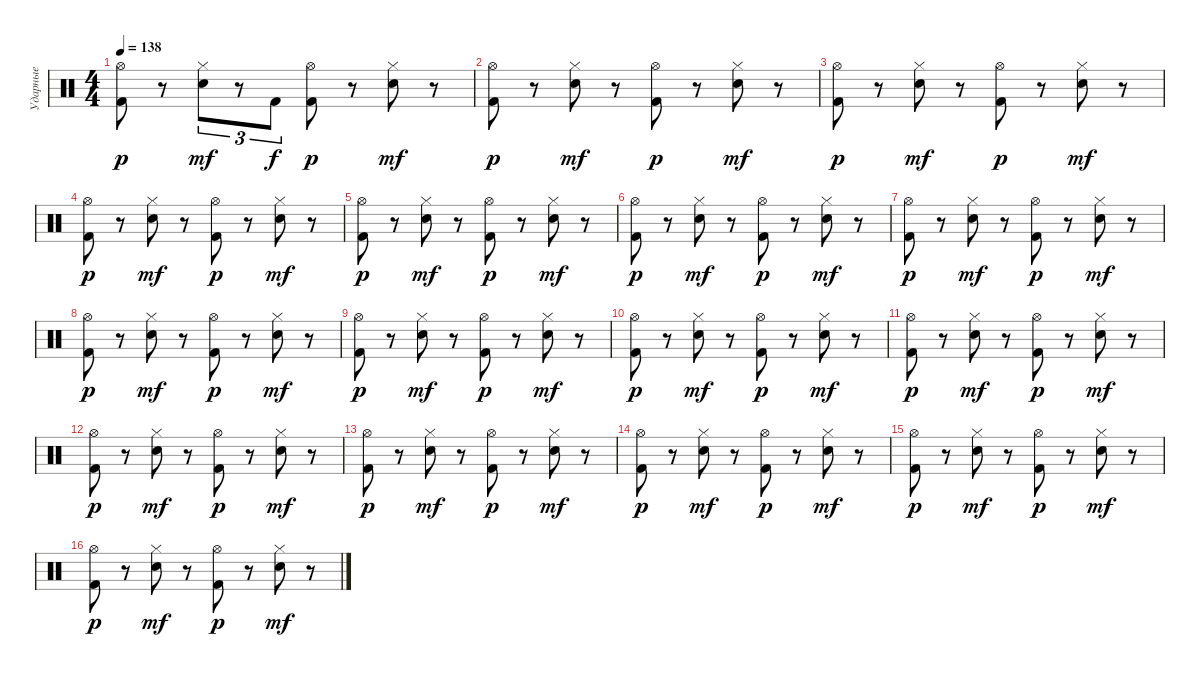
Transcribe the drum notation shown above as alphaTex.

\track ("Ударные" "Ударные") {instrument percussion}
\staff {score}
\articulation defaults
\ts (4 4)
\tempo 138
\clef neutral
\ks c
("Hi-Hat (open)" "Kick (hit) 2").8{dy p} r.8 ("Hi-Hat (closed)" "Snare (hit) 2").8{tu (3 2) dy mf} r.8{tu (3 2)} "Kick (hit) 2".8{tu (3 2) dy f} ("Hi-Hat (open)" "Kick (hit) 2").8{dy p} r.8 ("Hi-Hat (closed)" "Snare (hit) 2").8{dy mf} r.8 |
("Hi-Hat (open)" "Kick (hit) 2").8{dy p} r.8 ("Hi-Hat (closed)" "Snare (hit) 2").8{dy mf} r.8 ("Hi-Hat (open)" "Kick (hit) 2").8{dy p} r.8 ("Hi-Hat (closed)" "Snare (hit) 2").8{dy mf} r.8 |
("Hi-Hat (open)" "Kick (hit) 2").8{dy p} r.8 ("Hi-Hat (closed)" "Snare (hit) 2").8{dy mf} r.8 ("Hi-Hat (open)" "Kick (hit) 2").8{dy p} r.8 ("Hi-Hat (closed)" "Snare (hit) 2").8{dy mf} r.8 |
("Hi-Hat (open)" "Kick (hit) 2").8{dy p} r.8 ("Hi-Hat (closed)" "Snare (hit) 2").8{dy mf} r.8 ("Hi-Hat (open)" "Kick (hit) 2").8{dy p} r.8 ("Hi-Hat (closed)" "Snare (hit) 2").8{dy mf} r.8 |
("Hi-Hat (open)" "Kick (hit) 2").8{dy p} r.8 ("Hi-Hat (closed)" "Snare (hit) 2").8{dy mf} r.8 ("Hi-Hat (open)" "Kick (hit) 2").8{dy p} r.8 ("Hi-Hat (closed)" "Snare (hit) 2").8{dy mf} r.8 |
("Hi-Hat (open)" "Kick (hit) 2").8{dy p} r.8 ("Hi-Hat (closed)" "Snare (hit) 2").8{dy mf} r.8 ("Hi-Hat (open)" "Kick (hit) 2").8{dy p} r.8 ("Hi-Hat (closed)" "Snare (hit) 2").8{dy mf} r.8 |
("Hi-Hat (open)" "Kick (hit) 2").8{dy p} r.8 ("Hi-Hat (closed)" "Snare (hit) 2").8{dy mf} r.8 ("Hi-Hat (open)" "Kick (hit) 2").8{dy p} r.8 ("Hi-Hat (closed)" "Snare (hit) 2").8{dy mf} r.8 |
("Hi-Hat (open)" "Kick (hit) 2").8{dy p} r.8 ("Hi-Hat (closed)" "Snare (hit) 2").8{dy mf} r.8 ("Hi-Hat (open)" "Kick (hit) 2").8{dy p} r.8 ("Hi-Hat (closed)" "Snare (hit) 2").8{dy mf} r.8 |
("Hi-Hat (open)" "Kick (hit) 2").8{dy p} r.8 ("Hi-Hat (closed)" "Snare (hit) 2").8{dy mf} r.8 ("Hi-Hat (open)" "Kick (hit) 2").8{dy p} r.8 ("Hi-Hat (closed)" "Snare (hit) 2").8{dy mf} r.8 |
("Hi-Hat (open)" "Kick (hit) 2").8{dy p} r.8 ("Hi-Hat (closed)" "Snare (hit) 2").8{dy mf} r.8 ("Hi-Hat (open)" "Kick (hit) 2").8{dy p} r.8 ("Hi-Hat (closed)" "Snare (hit) 2").8{dy mf} r.8 |
("Hi-Hat (open)" "Kick (hit) 2").8{dy p} r.8 ("Hi-Hat (closed)" "Snare (hit) 2").8{dy mf} r.8 ("Hi-Hat (open)" "Kick (hit) 2").8{dy p} r.8 ("Hi-Hat (closed)" "Snare (hit) 2").8{dy mf} r.8 |
("Hi-Hat (open)" "Kick (hit) 2").8{dy p} r.8 ("Hi-Hat (closed)" "Snare (hit) 2").8{dy mf} r.8 ("Hi-Hat (open)" "Kick (hit) 2").8{dy p} r.8 ("Hi-Hat (closed)" "Snare (hit) 2").8{dy mf} r.8 |
("Hi-Hat (open)" "Kick (hit) 2").8{dy p} r.8 ("Hi-Hat (closed)" "Snare (hit) 2").8{dy mf} r.8 ("Hi-Hat (open)" "Kick (hit) 2").8{dy p} r.8 ("Hi-Hat (closed)" "Snare (hit) 2").8{dy mf} r.8 |
("Hi-Hat (open)" "Kick (hit) 2").8{dy p} r.8 ("Hi-Hat (closed)" "Snare (hit) 2").8{dy mf} r.8 ("Hi-Hat (open)" "Kick (hit) 2").8{dy p} r.8 ("Hi-Hat (closed)" "Snare (hit) 2").8{dy mf} r.8 |
("Hi-Hat (open)" "Kick (hit) 2").8{dy p} r.8 ("Hi-Hat (closed)" "Snare (hit) 2").8{dy mf} r.8 ("Hi-Hat (open)" "Kick (hit) 2").8{dy p} r.8 ("Hi-Hat (closed)" "Snare (hit) 2").8{dy mf} r.8 |
("Hi-Hat (open)" "Kick (hit) 2").8{dy p} r.8 ("Hi-Hat (closed)" "Snare (hit) 2").8{dy mf} r.8 ("Hi-Hat (open)" "Kick (hit) 2").8{dy p} r.8 ("Hi-Hat (closed)" "Snare (hit) 2").8{dy mf} r.8
